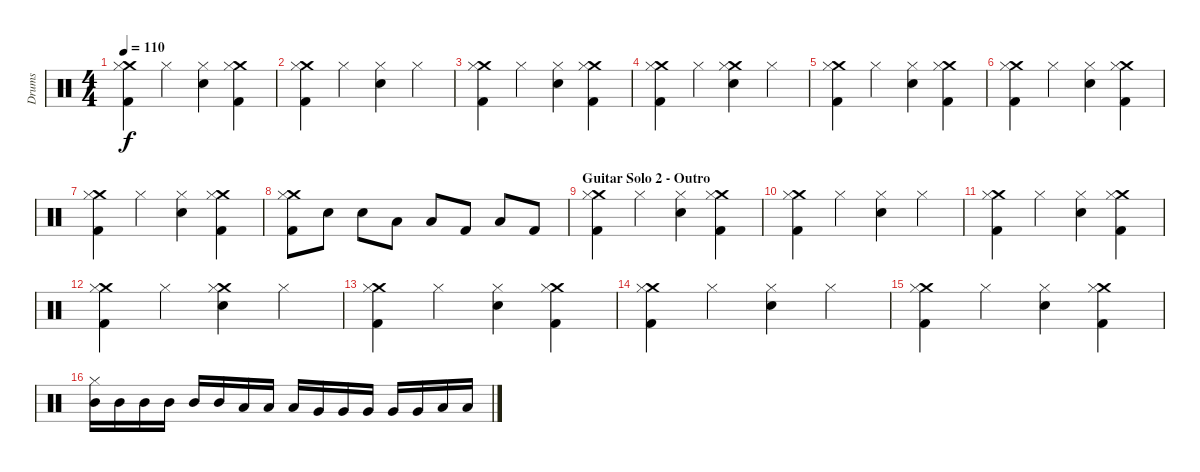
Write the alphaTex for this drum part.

\track ("Drums" "Drums") {instrument percussion}
\staff {score}
\articulation defaults
\ts (4 4)
\tempo 110
\clef neutral
\ks c
("Crash medium (hit)" "Kick (hit) 2" "Hi-Hat (closed)").4{dy f} "Hi-Hat (closed)".4 ("Snare (hit) 2" "Hi-Hat (closed)").4 ("Crash medium (hit)" "Kick (hit) 2" "Hi-Hat (closed)").4 |
("Crash medium (hit)" "Kick (hit) 2" "Hi-Hat (closed)").4 "Hi-Hat (closed)".4 ("Snare (hit) 2" "Hi-Hat (closed)").4 "Hi-Hat (closed)".4 |
("Crash medium (hit)" "Kick (hit) 2" "Hi-Hat (closed)").4 "Hi-Hat (closed)".4 ("Snare (hit) 2" "Hi-Hat (closed)").4 ("Crash medium (hit)" "Kick (hit) 2" "Hi-Hat (closed)").4 |
("Crash medium (hit)" "Kick (hit) 2" "Hi-Hat (closed)").4 "Hi-Hat (closed)".4 ("Crash medium (hit)" "Snare (hit) 2" "Hi-Hat (closed)").4 "Hi-Hat (closed)".4 |
("Crash medium (hit)" "Kick (hit) 2" "Hi-Hat (closed)").4 "Hi-Hat (closed)".4 ("Snare (hit) 2" "Hi-Hat (closed)").4 ("Crash medium (hit)" "Kick (hit) 2" "Hi-Hat (closed)").4 |
("Crash medium (hit)" "Kick (hit) 2" "Hi-Hat (closed)").4 "Hi-Hat (closed)".4 ("Snare (hit) 2" "Hi-Hat (closed)").4 ("Crash medium (hit)" "Kick (hit) 2" "Hi-Hat (closed)").4 |
("Crash medium (hit)" "Kick (hit) 2" "Hi-Hat (closed)").4 "Hi-Hat (closed)".4 ("Snare (hit) 2" "Hi-Hat (closed)").4 ("Crash medium (hit)" "Kick (hit) 2" "Hi-Hat (closed)").4 |
("Crash medium (hit)" "Kick (hit) 2" "Hi-Hat (closed)").8 "Snare (hit) 2".8 "Snare (hit) 2".8 "Low Tom (hit)".8 "Low Tom (hit)".8 "Kick (hit) 2".8 "Low Tom (hit)".8 "Kick (hit) 2".8 |
\section ("" "Guitar Solo 2 - Outro")
("Crash medium (hit)" "Kick (hit) 2" "Hi-Hat (closed)").4 "Hi-Hat (closed)".4 ("Snare (hit) 2" "Hi-Hat (closed)").4 ("Crash medium (hit)" "Kick (hit) 2" "Hi-Hat (closed)").4 |
("Crash medium (hit)" "Kick (hit) 2" "Hi-Hat (closed)").4 "Hi-Hat (closed)".4 ("Snare (hit) 2" "Hi-Hat (closed)").4 "Hi-Hat (closed)".4 |
("Crash medium (hit)" "Kick (hit) 2" "Hi-Hat (closed)").4 "Hi-Hat (closed)".4 ("Snare (hit) 2" "Hi-Hat (closed)").4 ("Crash medium (hit)" "Kick (hit) 2" "Hi-Hat (closed)").4 |
("Crash medium (hit)" "Kick (hit) 2" "Hi-Hat (closed)").4 "Hi-Hat (closed)".4 ("Crash medium (hit)" "Snare (hit) 2" "Hi-Hat (closed)").4 "Hi-Hat (closed)".4 |
("Crash medium (hit)" "Kick (hit) 2" "Hi-Hat (closed)").4 "Hi-Hat (closed)".4 ("Snare (hit) 2" "Hi-Hat (closed)").4 ("Crash medium (hit)" "Kick (hit) 2" "Hi-Hat (closed)").4 |
("Crash medium (hit)" "Kick (hit) 2" "Hi-Hat (closed)").4 "Hi-Hat (closed)".4 ("Snare (hit) 2" "Hi-Hat (closed)").4 "Hi-Hat (closed)".4 |
("Crash medium (hit)" "Kick (hit) 2" "Hi-Hat (closed)").4 "Hi-Hat (closed)".4 ("Snare (hit) 2" "Hi-Hat (closed)").4 ("Crash medium (hit)" "Kick (hit) 2" "Hi-Hat (closed)").4 |
("Mid Tom (hit)" "Hi-Hat (closed)").16 "Mid Tom (hit)".16 "Mid Tom (hit)".16 "Mid Tom (hit)".16 "Mid Tom (hit)".16 "Mid Tom (hit)".16 "Low Tom (hit)".16 "Low Tom (hit)".16 "Low Tom (hit)".16 "Very Low Tom (hit)".16 "Very Low Tom (hit)".16 "Very Low Tom (hit)".16 "Very Low Tom (hit)".16 "Very Low Tom (hit)".16 "Low Floor Tom (hit)".16 "Low Floor Tom (hit)".16
